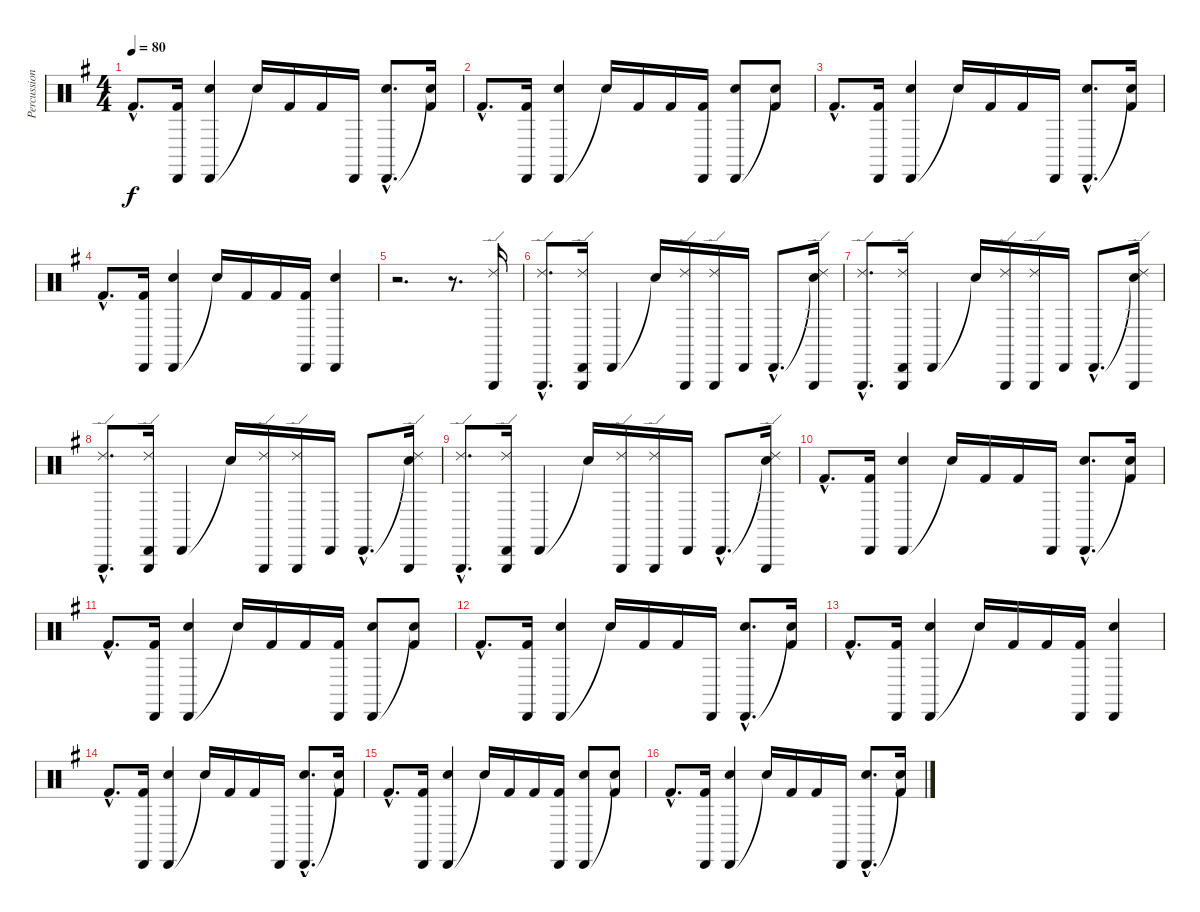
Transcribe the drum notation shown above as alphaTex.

\track ("Percussions" "Percussion") {instrument percussion}
\staff {score}
\articulation defaults
\ts (4 4)
\tempo 80
\clef neutral
\ks g "Kick (hit) 2"{hac}.8{d dy f}
("Cabasa (hit)" "Kick (hit) 2").16 ("Cabasa (hit)" "Electric Snare (hit)").4 "Snare (hit)"{t}.16 "Kick (hit) 2".16 "Kick (hit) 2".16 "Cabasa (hit)".16 ("Cabasa (hit)"{hac} "Electric Snare (hit)"{hac}).8{d} ("Snare (hit)"{t} "Kick (hit) 2").16 |
"Kick (hit) 2"{hac}.8{d} ("Cabasa (hit)" "Kick (hit) 2").16 ("Cabasa (hit)" "Electric Snare (hit)").4 "Snare (hit)"{t}.16 "Kick (hit) 2".16 "Kick (hit) 2".16 ("Cabasa (hit)" "Kick (hit) 2").16 ("Cabasa (hit)" "Electric Snare (hit)").8 ("Snare (hit)"{t} "Kick (hit) 2").8 |
"Kick (hit) 2"{hac}.8{d} ("Cabasa (hit)" "Kick (hit) 2").16 ("Cabasa (hit)" "Electric Snare (hit)").4 "Snare (hit)"{t}.16 "Kick (hit) 2".16 "Kick (hit) 2".16 "Cabasa (hit)".16 ("Cabasa (hit)"{hac} "Electric Snare (hit)"{hac}).8{d} ("Snare (hit)"{t} "Kick (hit) 2").16 |
"Kick (hit) 2"{hac}.8{d} ("Cabasa (hit)" "Kick (hit) 2").16 ("Cabasa (hit)" "Electric Snare (hit)").4 "Snare (hit)"{t}.16 "Kick (hit) 2".16 "Kick (hit) 2".16 ("Cabasa (hit)" "Kick (hit) 2").16 ("Cabasa (hit)" "Electric Snare (hit)").4 |
r.2{d} r.8{d} ("Triangle (hit)" "Ride (edge) 2").16 |
("Triangle (hit)"{hac} "Ride (edge) 2"{hac}).8{d} ("Cabasa (hit)" "Triangle (hit)" "Ride (edge) 2").16 "Cabasa (hit)".4 "Snare (hit)"{t}.16 ("Triangle (hit)" "Ride (edge) 2").16 ("Triangle (hit)" "Ride (edge) 2").16 "Cabasa (hit)".16 "Cabasa (hit)"{hac}.8{d} ("Snare (hit)"{t} "Triangle (hit)" "Ride (edge) 2").16 |
("Triangle (hit)"{hac} "Ride (edge) 2"{hac}).8{d} ("Cabasa (hit)" "Triangle (hit)" "Ride (edge) 2").16 "Cabasa (hit)".4 "Snare (hit)"{t}.16 ("Triangle (hit)" "Ride (edge) 2").16 ("Triangle (hit)" "Ride (edge) 2").16 "Cabasa (hit)".16 "Cabasa (hit)"{hac}.8{d} ("Snare (hit)"{t} "Triangle (hit)" "Ride (edge) 2").16 |
("Triangle (hit)"{hac} "Ride (edge) 2"{hac}).8{d} ("Cabasa (hit)" "Triangle (hit)" "Ride (edge) 2").16 "Cabasa (hit)".4 "Snare (hit)"{t}.16 ("Triangle (hit)" "Ride (edge) 2").16 ("Triangle (hit)" "Ride (edge) 2").16 "Cabasa (hit)".16 "Cabasa (hit)"{hac}.8{d} ("Snare (hit)"{t} "Triangle (hit)" "Ride (edge) 2").16 |
("Triangle (hit)"{hac} "Ride (edge) 2"{hac}).8{d} ("Cabasa (hit)" "Triangle (hit)" "Ride (edge) 2").16 "Cabasa (hit)".4 "Snare (hit)"{t}.16 ("Triangle (hit)" "Ride (edge) 2").16 ("Triangle (hit)" "Ride (edge) 2").16 "Cabasa (hit)".16 "Cabasa (hit)"{hac}.8{d} ("Snare (hit)"{t} "Triangle (hit)" "Ride (edge) 2").16 |
"Kick (hit) 2"{hac}.8{d} ("Cabasa (hit)" "Kick (hit) 2").16 ("Cabasa (hit)" "Electric Snare (hit)").4 "Snare (hit)"{t}.16 "Kick (hit) 2".16 "Kick (hit) 2".16 "Cabasa (hit)".16 ("Cabasa (hit)"{hac} "Electric Snare (hit)"{hac}).8{d} ("Snare (hit)"{t} "Kick (hit) 2").16 |
"Kick (hit) 2"{hac}.8{d} ("Cabasa (hit)" "Kick (hit) 2").16 ("Cabasa (hit)" "Electric Snare (hit)").4 "Snare (hit)"{t}.16 "Kick (hit) 2".16 "Kick (hit) 2".16 ("Cabasa (hit)" "Kick (hit) 2").16 ("Cabasa (hit)" "Electric Snare (hit)").8 ("Snare (hit)"{t} "Kick (hit) 2").8 |
"Kick (hit) 2"{hac}.8{d} ("Cabasa (hit)" "Kick (hit) 2").16 ("Cabasa (hit)" "Electric Snare (hit)").4 "Snare (hit)"{t}.16 "Kick (hit) 2".16 "Kick (hit) 2".16 "Cabasa (hit)".16 ("Cabasa (hit)"{hac} "Electric Snare (hit)"{hac}).8{d} ("Snare (hit)"{t} "Kick (hit) 2").16 |
"Kick (hit) 2"{hac}.8{d} ("Cabasa (hit)" "Kick (hit) 2").16 ("Cabasa (hit)" "Electric Snare (hit)").4 "Snare (hit)"{t}.16 "Kick (hit) 2".16 "Kick (hit) 2".16 ("Cabasa (hit)" "Kick (hit) 2").16 ("Cabasa (hit)" "Electric Snare (hit)").4 |
"Kick (hit) 2"{hac}.8{d} ("Cabasa (hit)" "Kick (hit) 2").16 ("Cabasa (hit)" "Electric Snare (hit)").4 "Snare (hit)"{t}.16 "Kick (hit) 2".16 "Kick (hit) 2".16 "Cabasa (hit)".16 ("Cabasa (hit)"{hac} "Electric Snare (hit)"{hac}).8{d} ("Snare (hit)"{t} "Kick (hit) 2").16 |
"Kick (hit) 2"{hac}.8{d} ("Cabasa (hit)" "Kick (hit) 2").16 ("Cabasa (hit)" "Electric Snare (hit)").4 "Snare (hit)"{t}.16 "Kick (hit) 2".16 "Kick (hit) 2".16 ("Cabasa (hit)" "Kick (hit) 2").16 ("Cabasa (hit)" "Electric Snare (hit)").8 ("Snare (hit)"{t} "Kick (hit) 2").8 |
"Kick (hit) 2"{hac}.8{d} ("Cabasa (hit)" "Kick (hit) 2").16 ("Cabasa (hit)" "Electric Snare (hit)").4 "Snare (hit)"{t}.16 "Kick (hit) 2".16 "Kick (hit) 2".16 "Cabasa (hit)".16 ("Cabasa (hit)"{hac} "Electric Snare (hit)"{hac}).8{d} ("Snare (hit)"{t} "Kick (hit) 2").16
